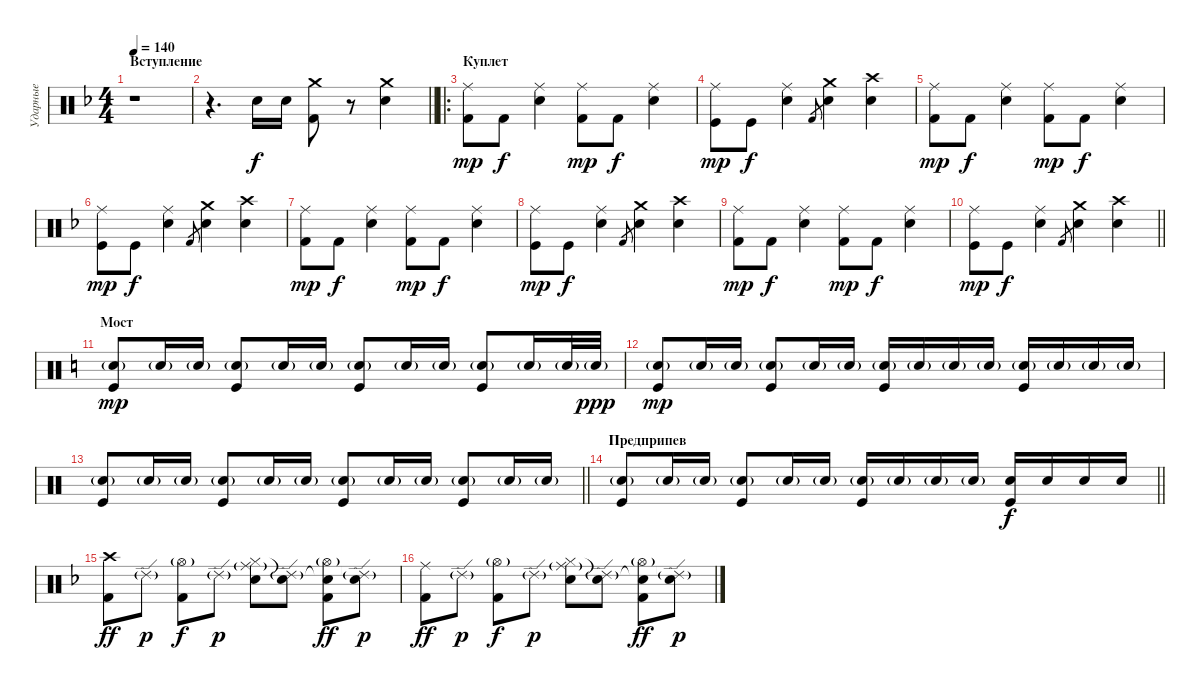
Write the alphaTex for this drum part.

\track ("Ударные" "Ударные") {instrument percussion}
\staff {score}
\articulation defaults
\ts (4 4)
\section ("" "Вступление")
\tempo 140
\clef neutral
\ks f
r.1{dy f} |
\barLineRight lightlight
r.4{d} "Electric Snare (hit)".16 "Electric Snare (hit)".16 ("Crash medium (hit)" "Kick (hit) 2").8 r.8 ("Crash medium (hit)" "Electric Snare (hit)").4 |
\ro
\section ("" "Куплет")
("Ride (middle)" "Kick (hit) 2").8{dy mp} "Kick (hit) 2".8{dy f} ("Ride (middle)" "Snare (hit) 2").4 ("Ride (middle)" "Kick (hit) 2").8{dy mp} "Kick (hit) 2".8{dy f} ("Ride (middle)" "Snare (hit) 2").4 |
("Ride (middle)" "Kick (hit)").8{dy mp} "Kick (hit)".8{dy f} ("Ride (middle)" "Snare (hit) 2").4 "Kick (hit) 2".8{gr} ("Crash medium (hit)" "Snare (hit) 2").4 ("Crash high (hit)" "Snare (hit) 2").4 |
("Ride (middle)" "Kick (hit) 2").8{dy mp} "Kick (hit) 2".8{dy f} ("Ride (middle)" "Snare (hit) 2").4 ("Ride (middle)" "Kick (hit) 2").8{dy mp} "Kick (hit) 2".8{dy f} ("Ride (middle)" "Snare (hit) 2").4 |
("Ride (middle)" "Kick (hit)").8{dy mp} "Kick (hit)".8{dy f} ("Ride (middle)" "Snare (hit) 2").4 "Kick (hit) 2".8{gr} ("Crash medium (hit)" "Snare (hit) 2").4 ("Crash high (hit)" "Snare (hit) 2").4 |
("Ride (middle)" "Kick (hit) 2").8{dy mp} "Kick (hit) 2".8{dy f} ("Ride (middle)" "Snare (hit) 2").4 ("Ride (middle)" "Kick (hit) 2").8{dy mp} "Kick (hit) 2".8{dy f} ("Ride (middle)" "Snare (hit) 2").4 |
("Ride (middle)" "Kick (hit)").8{dy mp} "Kick (hit)".8{dy f} ("Ride (middle)" "Snare (hit) 2").4 "Kick (hit) 2".8{gr} ("Crash medium (hit)" "Snare (hit) 2").4 ("Crash high (hit)" "Snare (hit) 2").4 |
("Ride (middle)" "Kick (hit) 2").8{dy mp} "Kick (hit) 2".8{dy f} ("Ride (middle)" "Snare (hit) 2").4 ("Ride (middle)" "Kick (hit) 2").8{dy mp} "Kick (hit) 2".8{dy f} ("Ride (middle)" "Snare (hit) 2").4 |
\barLineRight lightlight
("Ride (middle)" "Kick (hit)").8{dy mp} "Kick (hit)".8{dy f} ("Ride (middle)" "Snare (hit) 2").4 "Kick (hit) 2".8{gr} ("Crash medium (hit)" "Snare (hit) 2").4 ("Crash high (hit)" "Snare (hit) 2").4 |
\section ("" "Мост")
\ks c
("Electric Snare (hit)"{g} "Kick (hit)").8{dy mp} "Electric Snare (hit)"{g}.16 "Electric Snare (hit)"{g}.16 ("Electric Snare (hit)"{g} "Kick (hit)").8 "Electric Snare (hit)"{g}.16 "Electric Snare (hit)"{g}.16 ("Electric Snare (hit)"{g} "Kick (hit)").8 "Electric Snare (hit)"{g}.16 "Electric Snare (hit)"{g}.16 ("Electric Snare (hit)"{g} "Kick (hit)").8 "Electric Snare (hit)"{g}.16 "Electric Snare (hit)"{g}.32 "Electric Snare (hit)"{g}.32{dy ppp} |
("Electric Snare (hit)"{g} "Kick (hit)").8{dy mp} "Electric Snare (hit)"{g}.16 "Electric Snare (hit)"{g}.16 ("Electric Snare (hit)"{g} "Kick (hit)").8 "Electric Snare (hit)"{g}.16 "Electric Snare (hit)"{g}.16 ("Electric Snare (hit)"{g} "Kick (hit)").16 "Electric Snare (hit)"{g}.16 "Electric Snare (hit)"{g}.16 "Electric Snare (hit)"{g}.16 ("Electric Snare (hit)"{g} "Kick (hit)").16 "Electric Snare (hit)"{g}.16 "Electric Snare (hit)"{g}.16 "Electric Snare (hit)"{g}.16 |
\barLineRight lightlight
("Electric Snare (hit)"{g} "Kick (hit)").8 "Electric Snare (hit)"{g}.16 "Electric Snare (hit)"{g}.16 ("Electric Snare (hit)"{g} "Kick (hit)").8 "Electric Snare (hit)"{g}.16 "Electric Snare (hit)"{g}.16 ("Electric Snare (hit)"{g} "Kick (hit)").8 "Electric Snare (hit)"{g}.16 "Electric Snare (hit)"{g}.16 ("Electric Snare (hit)"{g} "Kick (hit)").8 "Electric Snare (hit)"{g}.16 "Electric Snare (hit)"{g}.16 |
\section ("" "Предприпев")
\barLineRight lightlight
("Electric Snare (hit)"{g} "Kick (hit)").8 "Electric Snare (hit)"{g}.16 "Electric Snare (hit)"{g}.16 ("Electric Snare (hit)"{g} "Kick (hit)").8 "Electric Snare (hit)"{g}.16 "Electric Snare (hit)"{g}.16 ("Electric Snare (hit)"{g} "Kick (hit)").16 "Electric Snare (hit)"{g}.16 "Electric Snare (hit)"{g}.16 "Electric Snare (hit)"{g}.16 ("Electric Snare (hit)" "Kick (hit)").16{dy f} "Electric Snare (hit)".16 "Electric Snare (hit)".16 "Electric Snare (hit)".16 |
\ks f
("Crash high (hit)" "Kick (hit) 2").8{dy ff} "Ride (edge) 2"{g}.8{dy p} ("Hi-Hat (open)"{g} "Kick (hit) 2").8{dy f} "Ride (edge) 2"{g}.8{dy p} ("Ride (middle)"{g} "Hi-Hat (closed)" "Electric Snare (hit)").8 ("Ride (edge) 2"{g} "Snare (hit)"{t}).8 ("Hi-Hat (open)"{g} "Snare (hit)"{t} "Kick (hit) 2").8{dy ff} ("Ride (edge) 2"{g} "Snare (hit)"{t}).8{dy p} |
("Ride (middle)" "Kick (hit) 2").8{dy ff} "Ride (edge) 2"{g}.8{dy p} ("Hi-Hat (open)"{g} "Kick (hit) 2").8{dy f} "Ride (edge) 2"{g}.8{dy p} ("Ride (middle)"{g} "Hi-Hat (closed)" "Electric Snare (hit)").8 ("Ride (edge) 2"{g} "Snare (hit)"{t}).8 ("Hi-Hat (open)"{g} "Snare (hit)"{t} "Kick (hit) 2").8{dy ff} ("Ride (edge) 2"{g} "Snare (hit)"{t}).8{dy p}
